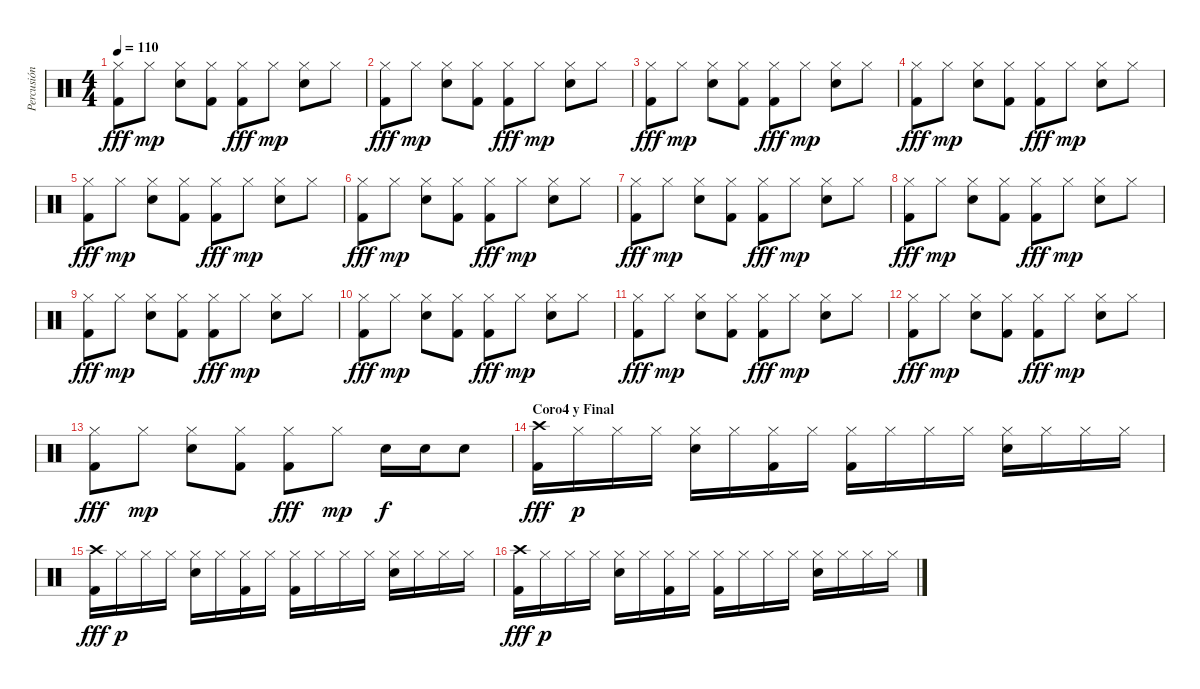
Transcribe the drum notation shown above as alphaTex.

\track ("Percusión" "Percusión") {instrument percussion}
\staff {score}
\articulation defaults
\ts (4 4)
\tempo 110
\clef neutral
\ks c
("Hi-Hat (closed)" "Kick (hit) 2").8{dy fff} "Hi-Hat (closed)".8{dy mp} ("Hi-Hat (closed)" "Snare (hit) 2").8 ("Hi-Hat (closed)" "Kick (hit) 2").8 ("Hi-Hat (closed)" "Kick (hit) 2").8{dy fff} "Hi-Hat (closed)".8{dy mp} ("Hi-Hat (closed)" "Snare (hit) 2").8 "Hi-Hat (closed)".8 |
("Hi-Hat (closed)" "Kick (hit) 2").8{dy fff} "Hi-Hat (closed)".8{dy mp} ("Hi-Hat (closed)" "Snare (hit) 2").8 ("Hi-Hat (closed)" "Kick (hit) 2").8 ("Hi-Hat (closed)" "Kick (hit) 2").8{dy fff} "Hi-Hat (closed)".8{dy mp} ("Hi-Hat (closed)" "Snare (hit) 2").8 "Hi-Hat (closed)".8 |
("Hi-Hat (closed)" "Kick (hit) 2").8{dy fff} "Hi-Hat (closed)".8{dy mp} ("Hi-Hat (closed)" "Snare (hit) 2").8 ("Hi-Hat (closed)" "Kick (hit) 2").8 ("Hi-Hat (closed)" "Kick (hit) 2").8{dy fff} "Hi-Hat (closed)".8{dy mp} ("Hi-Hat (closed)" "Snare (hit) 2").8 "Hi-Hat (closed)".8 |
("Hi-Hat (closed)" "Kick (hit) 2").8{dy fff} "Hi-Hat (closed)".8{dy mp} ("Hi-Hat (closed)" "Snare (hit) 2").8 ("Hi-Hat (closed)" "Kick (hit) 2").8 ("Hi-Hat (closed)" "Kick (hit) 2").8{dy fff} "Hi-Hat (closed)".8{dy mp} ("Hi-Hat (closed)" "Snare (hit) 2").8 "Hi-Hat (closed)".8 |
("Hi-Hat (closed)" "Kick (hit) 2").8{dy fff} "Hi-Hat (closed)".8{dy mp} ("Hi-Hat (closed)" "Snare (hit) 2").8 ("Hi-Hat (closed)" "Kick (hit) 2").8 ("Hi-Hat (closed)" "Kick (hit) 2").8{dy fff} "Hi-Hat (closed)".8{dy mp} ("Hi-Hat (closed)" "Snare (hit) 2").8 "Hi-Hat (closed)".8 |
("Hi-Hat (closed)" "Kick (hit) 2").8{dy fff} "Hi-Hat (closed)".8{dy mp} ("Hi-Hat (closed)" "Snare (hit) 2").8 ("Hi-Hat (closed)" "Kick (hit) 2").8 ("Hi-Hat (closed)" "Kick (hit) 2").8{dy fff} "Hi-Hat (closed)".8{dy mp} ("Hi-Hat (closed)" "Snare (hit) 2").8 "Hi-Hat (closed)".8 |
("Hi-Hat (closed)" "Kick (hit) 2").8{dy fff} "Hi-Hat (closed)".8{dy mp} ("Hi-Hat (closed)" "Snare (hit) 2").8 ("Hi-Hat (closed)" "Kick (hit) 2").8 ("Hi-Hat (closed)" "Kick (hit) 2").8{dy fff} "Hi-Hat (closed)".8{dy mp} ("Hi-Hat (closed)" "Snare (hit) 2").8 "Hi-Hat (closed)".8 |
("Hi-Hat (closed)" "Kick (hit) 2").8{dy fff} "Hi-Hat (closed)".8{dy mp} ("Hi-Hat (closed)" "Snare (hit) 2").8 ("Hi-Hat (closed)" "Kick (hit) 2").8 ("Hi-Hat (closed)" "Kick (hit) 2").8{dy fff} "Hi-Hat (closed)".8{dy mp} ("Hi-Hat (closed)" "Snare (hit) 2").8 "Hi-Hat (closed)".8 |
("Hi-Hat (closed)" "Kick (hit) 2").8{dy fff} "Hi-Hat (closed)".8{dy mp} ("Hi-Hat (closed)" "Snare (hit) 2").8 ("Hi-Hat (closed)" "Kick (hit) 2").8 ("Hi-Hat (closed)" "Kick (hit) 2").8{dy fff} "Hi-Hat (closed)".8{dy mp} ("Hi-Hat (closed)" "Snare (hit) 2").8 "Hi-Hat (closed)".8 |
("Hi-Hat (closed)" "Kick (hit) 2").8{dy fff} "Hi-Hat (closed)".8{dy mp} ("Hi-Hat (closed)" "Snare (hit) 2").8 ("Hi-Hat (closed)" "Kick (hit) 2").8 ("Hi-Hat (closed)" "Kick (hit) 2").8{dy fff} "Hi-Hat (closed)".8{dy mp} ("Hi-Hat (closed)" "Snare (hit) 2").8 "Hi-Hat (closed)".8 |
("Hi-Hat (closed)" "Kick (hit) 2").8{dy fff} "Hi-Hat (closed)".8{dy mp} ("Hi-Hat (closed)" "Snare (hit) 2").8 ("Hi-Hat (closed)" "Kick (hit) 2").8 ("Hi-Hat (closed)" "Kick (hit) 2").8{dy fff} "Hi-Hat (closed)".8{dy mp} ("Hi-Hat (closed)" "Snare (hit) 2").8 "Hi-Hat (closed)".8 |
("Hi-Hat (closed)" "Kick (hit) 2").8{dy fff} "Hi-Hat (closed)".8{dy mp} ("Hi-Hat (closed)" "Snare (hit) 2").8 ("Hi-Hat (closed)" "Kick (hit) 2").8 ("Hi-Hat (closed)" "Kick (hit) 2").8{dy fff} "Hi-Hat (closed)".8{dy mp} ("Hi-Hat (closed)" "Snare (hit) 2").8 "Hi-Hat (closed)".8 |
("Hi-Hat (closed)" "Kick (hit) 2").8{dy fff} "Hi-Hat (closed)".8{dy mp} ("Hi-Hat (closed)" "Snare (hit) 2").8 ("Hi-Hat (closed)" "Kick (hit) 2").8 ("Hi-Hat (closed)" "Kick (hit) 2").8{dy fff} "Hi-Hat (closed)".8{dy mp} "Snare (hit) 2".16{dy f} "Snare (hit) 2".16 "Snare (hit) 2".8 |
\section ("" "Coro4 y Final")
("Crash high (hit)" "Kick (hit) 2").16{dy fff} "Hi-Hat (closed)".16{dy p} "Hi-Hat (closed)".16 "Hi-Hat (closed)".16 ("Hi-Hat (closed)" "Snare (hit) 2").16 "Hi-Hat (closed)".16 ("Hi-Hat (closed)" "Kick (hit) 2").16 "Hi-Hat (closed)".16 ("Hi-Hat (closed)" "Kick (hit) 2").16 "Hi-Hat (closed)".16 "Hi-Hat (closed)".16 "Hi-Hat (closed)".16 ("Hi-Hat (closed)" "Snare (hit) 2").16 "Hi-Hat (closed)".16 "Hi-Hat (closed)".16 "Hi-Hat (closed)".16 |
("Crash high (hit)" "Kick (hit) 2").16{dy fff} "Hi-Hat (closed)".16{dy p} "Hi-Hat (closed)".16 "Hi-Hat (closed)".16 ("Hi-Hat (closed)" "Snare (hit) 2").16 "Hi-Hat (closed)".16 ("Hi-Hat (closed)" "Kick (hit) 2").16 "Hi-Hat (closed)".16 ("Hi-Hat (closed)" "Kick (hit) 2").16 "Hi-Hat (closed)".16 "Hi-Hat (closed)".16 "Hi-Hat (closed)".16 ("Hi-Hat (closed)" "Snare (hit) 2").16 "Hi-Hat (closed)".16 "Hi-Hat (closed)".16 "Hi-Hat (closed)".16 |
("Crash high (hit)" "Kick (hit) 2").16{dy fff} "Hi-Hat (closed)".16{dy p} "Hi-Hat (closed)".16 "Hi-Hat (closed)".16 ("Hi-Hat (closed)" "Snare (hit) 2").16 "Hi-Hat (closed)".16 ("Hi-Hat (closed)" "Kick (hit) 2").16 "Hi-Hat (closed)".16 ("Hi-Hat (closed)" "Kick (hit) 2").16 "Hi-Hat (closed)".16 "Hi-Hat (closed)".16 "Hi-Hat (closed)".16 ("Hi-Hat (closed)" "Snare (hit) 2").16 "Hi-Hat (closed)".16 "Hi-Hat (closed)".16 "Hi-Hat (closed)".16
